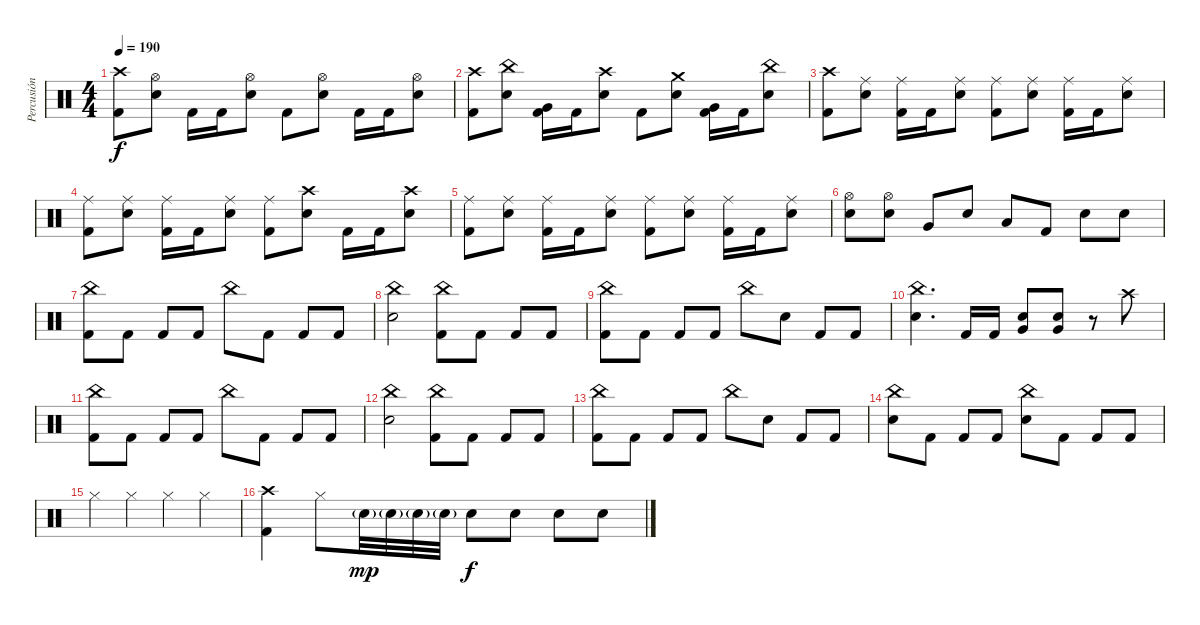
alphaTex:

\track ("Percusión" "Percusión") {instrument percussion}
\staff {score}
\articulation defaults
\ts (4 4)
\tempo 190
\clef neutral
\ks c
("Crash high (hit)" "Kick (hit) 2").8{dy f} ("Hi-Hat (open)" "Electric Snare (hit)").8 "Kick (hit) 2".16 "Kick (hit) 2".16 ("Hi-Hat (open)" "Electric Snare (hit)").8 "Kick (hit) 2".8 ("Hi-Hat (open)" "Electric Snare (hit)").8 "Kick (hit) 2".16 "Kick (hit) 2".16 ("Hi-Hat (open)" "Electric Snare (hit)").8 |
("Crash high (hit)" "Kick (hit) 2").8 ("China (hit)" "Electric Snare (hit)").8 ("Very Low Tom (hit)" "Kick (hit) 2").16 "Kick (hit) 2".16 ("Crash high (hit)" "Electric Snare (hit)").8 "Kick (hit) 2".8 ("Crash medium (hit)" "Electric Snare (hit)").8 ("Very Low Tom (hit)" "Kick (hit) 2").16 "Kick (hit) 2".16 ("China (hit)" "Electric Snare (hit)").8 |
("Crash high (hit)" "Kick (hit) 2").8 ("Ride (middle)" "Electric Snare (hit)").8 ("Ride (middle)" "Kick (hit) 2").16 "Kick (hit) 2".16 ("Ride (middle)" "Electric Snare (hit)").8 ("Ride (middle)" "Kick (hit) 2").8 ("Ride (middle)" "Electric Snare (hit)").8 ("Ride (middle)" "Kick (hit) 2").16 "Kick (hit) 2".16 ("Ride (middle)" "Electric Snare (hit)").8 |
("Ride (middle)" "Kick (hit) 2").8 ("Ride (middle)" "Electric Snare (hit)").8 ("Ride (middle)" "Kick (hit) 2").16 "Kick (hit) 2".16 ("Ride (middle)" "Electric Snare (hit)").8 ("Ride (middle)" "Kick (hit) 2").8 ("Crash high (hit)" "Electric Snare (hit)").8 "Kick (hit) 2".16 "Kick (hit) 2".16 ("Crash high (hit)" "Electric Snare (hit)").8 |
("Ride (middle)" "Kick (hit) 2").8 ("Ride (middle)" "Electric Snare (hit)").8 ("Ride (middle)" "Kick (hit) 2").16 "Kick (hit) 2".16 ("Ride (middle)" "Electric Snare (hit)").8 ("Ride (middle)" "Kick (hit) 2").8 ("Ride (middle)" "Electric Snare (hit)").8 ("Ride (middle)" "Kick (hit) 2").16 "Kick (hit) 2".16 ("Ride (middle)" "Electric Snare (hit)").8 |
("Hi-Hat (open)" "Electric Snare (hit)").8 ("Hi-Hat (open)" "Electric Snare (hit)").8 "Very Low Tom (hit)".8 "Electric Snare (hit)".8 "Low Floor Tom (hit)".8 "Kick (hit) 2".8 "Electric Snare (hit)".8 "Electric Snare (hit)".8 |
("China (hit)" "Kick (hit) 2").8 "Kick (hit) 2".8 "Kick (hit) 2".8 "Kick (hit) 2".8 "China (hit)".8 "Kick (hit) 2".8 "Kick (hit) 2".8 "Kick (hit) 2".8 |
("China (hit)" "Electric Snare (hit)").2 ("China (hit)" "Kick (hit) 2").8 "Kick (hit) 2".8 "Kick (hit) 2".8 "Kick (hit) 2".8 |
("China (hit)" "Kick (hit) 2").8 "Kick (hit) 2".8 "Kick (hit) 2".8 "Kick (hit) 2".8 "China (hit)".8 "Electric Snare (hit)".8 "Kick (hit) 2".8 "Kick (hit) 2".8 |
("China (hit)" "Electric Snare (hit)").4{d} "Kick (hit) 2".16 "Kick (hit) 2".16 ("Very Low Tom (hit)" "Electric Snare (hit)").8 ("Very Low Tom (hit)" "Electric Snare (hit)").8 r.8 "Crash high (hit)".8 |
("China (hit)" "Kick (hit) 2").8 "Kick (hit) 2".8 "Kick (hit) 2".8 "Kick (hit) 2".8 "China (hit)".8 "Kick (hit) 2".8 "Kick (hit) 2".8 "Kick (hit) 2".8 |
("China (hit)" "Electric Snare (hit)").2 ("China (hit)" "Kick (hit) 2").8 "Kick (hit) 2".8 "Kick (hit) 2".8 "Kick (hit) 2".8 |
("China (hit)" "Kick (hit) 2").8 "Kick (hit) 2".8 "Kick (hit) 2".8 "Kick (hit) 2".8 "China (hit)".8 "Electric Snare (hit)".8 "Kick (hit) 2".8 "Kick (hit) 2".8 |
("China (hit)" "Electric Snare (hit)").8 "Kick (hit) 2".8 "Kick (hit) 2".8 "Kick (hit) 2".8 ("China (hit)" "Electric Snare (hit)").8 "Kick (hit) 2".8 "Kick (hit) 2".8 "Kick (hit) 2".8 |
"Hi-Hat (closed)".4 "Hi-Hat (closed)".4 "Hi-Hat (closed)".4 "Hi-Hat (closed)".4 |
("Crash high (hit)" "Kick (hit) 2").4 "Hi-Hat (closed)".8 "Electric Snare (hit)"{g}.32{dy mp} "Electric Snare (hit)"{g}.32 "Electric Snare (hit)"{g}.32 "Electric Snare (hit)"{g}.32 "Electric Snare (hit)".8{dy f} "Electric Snare (hit)".8 "Electric Snare (hit)".8 "Electric Snare (hit)".8
